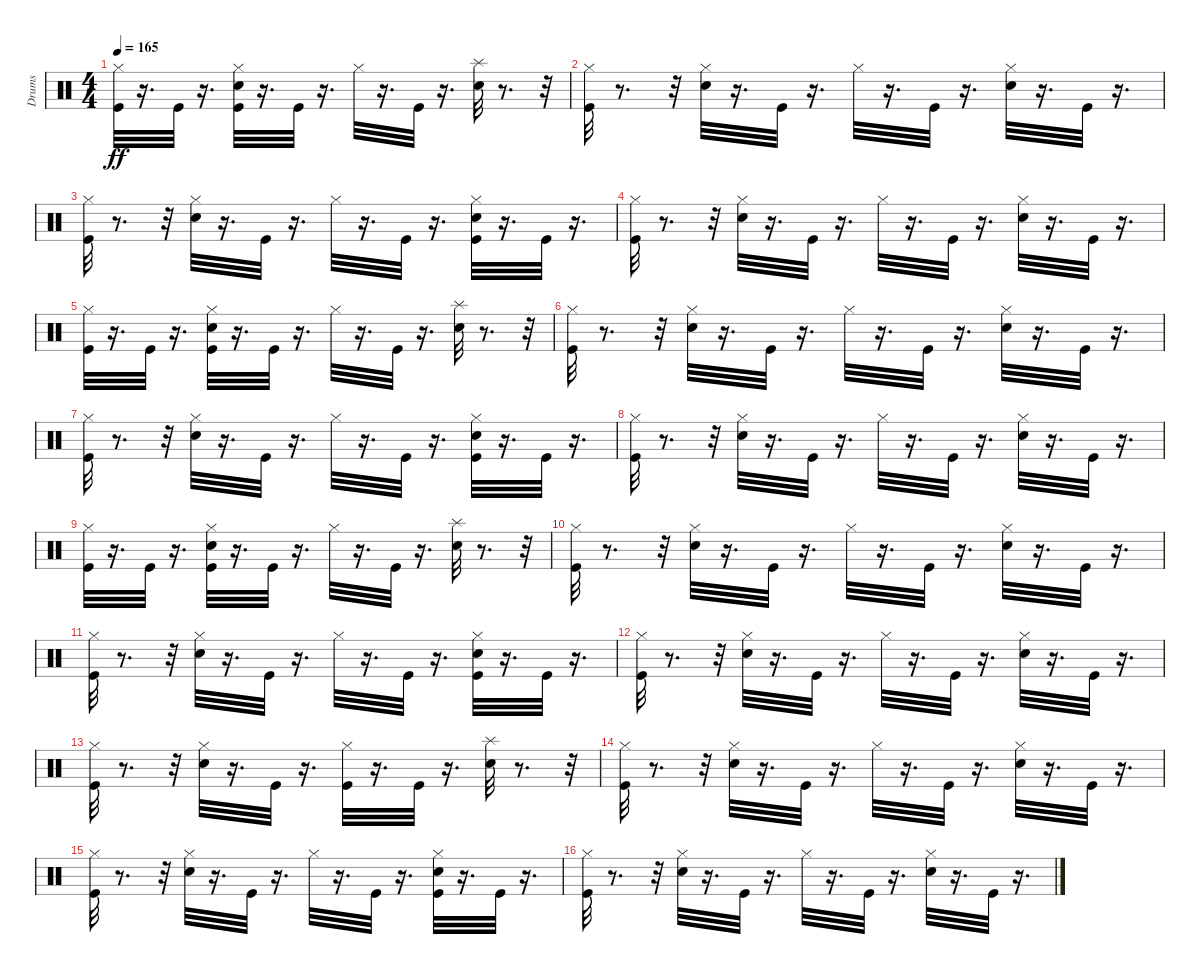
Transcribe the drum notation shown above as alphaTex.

\track ("Drums" "Drums") {instrument percussion}
\staff {score}
\articulation defaults
\ts (4 4)
\tempo 165
\clef neutral
\ks c
("Hi-Hat (closed)" "Kick (hit)").32{dy ff} r.16{d} "Kick (hit)".32 r.16{d} ("Kick (hit)" "Hi-Hat (closed)" "Electric Snare (hit)").32 r.16{d} "Kick (hit)".32 r.16{d} "Hi-Hat (closed)".32 r.16{d} "Kick (hit)".32 r.16{d} ("Splash (hit)" "Electric Snare (hit)").32 r.8{d} r.32 |
("Hi-Hat (closed)" "Kick (hit)").32 r.8{d} r.32 ("Hi-Hat (closed)" "Electric Snare (hit)").32 r.16{d} "Kick (hit)".32 r.16{d} "Hi-Hat (closed)".32 r.16{d} "Kick (hit)".32 r.16{d} ("Electric Snare (hit)" "Hi-Hat (closed)").32 r.16{d} "Kick (hit)".32 r.16{d} |
("Hi-Hat (closed)" "Kick (hit)").32 r.8{d} r.32 ("Electric Snare (hit)" "Hi-Hat (closed)").32 r.16{d} "Kick (hit)".32 r.16{d} "Hi-Hat (closed)".32 r.16{d} "Kick (hit)".32 r.16{d} ("Kick (hit)" "Hi-Hat (closed)" "Electric Snare (hit)").32 r.16{d} "Kick (hit)".32 r.16{d} |
("Hi-Hat (closed)" "Kick (hit)").32 r.8{d} r.32 ("Electric Snare (hit)" "Hi-Hat (closed)").32 r.16{d} "Kick (hit)".32 r.16{d} "Hi-Hat (closed)".32 r.16{d} "Kick (hit)".32 r.16{d} ("Electric Snare (hit)" "Hi-Hat (closed)").32 r.16{d} "Kick (hit)".32 r.16{d} |
("Hi-Hat (closed)" "Kick (hit)").32 r.16{d} "Kick (hit)".32 r.16{d} ("Kick (hit)" "Hi-Hat (closed)" "Electric Snare (hit)").32 r.16{d} "Kick (hit)".32 r.16{d} "Hi-Hat (closed)".32 r.16{d} "Kick (hit)".32 r.16{d} ("Splash (hit)" "Electric Snare (hit)").32 r.8{d} r.32 |
("Hi-Hat (closed)" "Kick (hit)").32 r.8{d} r.32 ("Electric Snare (hit)" "Hi-Hat (closed)").32 r.16{d} "Kick (hit)".32 r.16{d} "Hi-Hat (closed)".32 r.16{d} "Kick (hit)".32 r.16{d} ("Electric Snare (hit)" "Hi-Hat (closed)").32 r.16{d} "Kick (hit)".32 r.16{d} |
("Hi-Hat (closed)" "Kick (hit)").32 r.8{d} r.32 ("Electric Snare (hit)" "Hi-Hat (closed)").32 r.16{d} "Kick (hit)".32 r.16{d} "Hi-Hat (closed)".32 r.16{d} "Kick (hit)".32 r.16{d} ("Electric Snare (hit)" "Kick (hit)" "Hi-Hat (closed)").32 r.16{d} "Kick (hit)".32 r.16{d} |
("Hi-Hat (closed)" "Kick (hit)").32 r.8{d} r.32 ("Electric Snare (hit)" "Hi-Hat (closed)").32 r.16{d} "Kick (hit)".32 r.16{d} "Hi-Hat (closed)".32 r.16{d} "Kick (hit)".32 r.16{d} ("Electric Snare (hit)" "Hi-Hat (closed)").32 r.16{d} "Kick (hit)".32 r.16{d} |
("Hi-Hat (closed)" "Kick (hit)").32 r.16{d} "Kick (hit)".32 r.16{d} ("Kick (hit)" "Hi-Hat (closed)" "Electric Snare (hit)").32 r.16{d} "Kick (hit)".32 r.16{d} "Hi-Hat (closed)".32 r.16{d} "Kick (hit)".32 r.16{d} ("Splash (hit)" "Electric Snare (hit)").32 r.8{d} r.32 |
("Hi-Hat (closed)" "Kick (hit)").32 r.8{d} r.32 ("Hi-Hat (closed)" "Electric Snare (hit)").32 r.16{d} "Kick (hit)".32 r.16{d} "Hi-Hat (closed)".32 r.16{d} "Kick (hit)".32 r.16{d} ("Hi-Hat (closed)" "Electric Snare (hit)").32 r.16{d} "Kick (hit)".32 r.16{d} |
("Hi-Hat (closed)" "Kick (hit)").32 r.8{d} r.32 ("Hi-Hat (closed)" "Electric Snare (hit)").32 r.16{d} "Kick (hit)".32 r.16{d} "Hi-Hat (closed)".32 r.16{d} "Kick (hit)".32 r.16{d} ("Hi-Hat (closed)" "Electric Snare (hit)" "Kick (hit)").32 r.16{d} "Kick (hit)".32 r.16{d} |
("Hi-Hat (closed)" "Kick (hit)").32 r.8{d} r.32 ("Hi-Hat (closed)" "Electric Snare (hit)").32 r.16{d} "Kick (hit)".32 r.16{d} "Hi-Hat (closed)".32 r.16{d} "Kick (hit)".32 r.16{d} ("Hi-Hat (closed)" "Electric Snare (hit)").32 r.16{d} "Kick (hit)".32 r.16{d} |
("Hi-Hat (closed)" "Kick (hit)").32 r.8{d} r.32 ("Hi-Hat (closed)" "Electric Snare (hit)").32 r.16{d} "Kick (hit)".32 r.16{d} ("Kick (hit)" "Hi-Hat (closed)").32 r.16{d} "Kick (hit)".32 r.16{d} ("Splash (hit)" "Electric Snare (hit)").32 r.8{d} r.32 |
("Hi-Hat (closed)" "Kick (hit)").32 r.8{d} r.32 ("Hi-Hat (closed)" "Electric Snare (hit)").32 r.16{d} "Kick (hit)".32 r.16{d} "Hi-Hat (closed)".32 r.16{d} "Kick (hit)".32 r.16{d} ("Hi-Hat (closed)" "Electric Snare (hit)").32 r.16{d} "Kick (hit)".32 r.16{d} |
("Hi-Hat (closed)" "Kick (hit)").32 r.8{d} r.32 ("Hi-Hat (closed)" "Electric Snare (hit)").32 r.16{d} "Kick (hit)".32 r.16{d} "Hi-Hat (closed)".32 r.16{d} "Kick (hit)".32 r.16{d} ("Hi-Hat (closed)" "Electric Snare (hit)" "Kick (hit)").32 r.16{d} "Kick (hit)".32 r.16{d} |
("Hi-Hat (closed)" "Kick (hit)").32 r.8{d} r.32 ("Hi-Hat (closed)" "Electric Snare (hit)").32 r.16{d} "Kick (hit)".32 r.16{d} "Hi-Hat (closed)".32 r.16{d} "Kick (hit)".32 r.16{d} ("Hi-Hat (closed)" "Electric Snare (hit)").32 r.16{d} "Kick (hit)".32 r.16{d}
